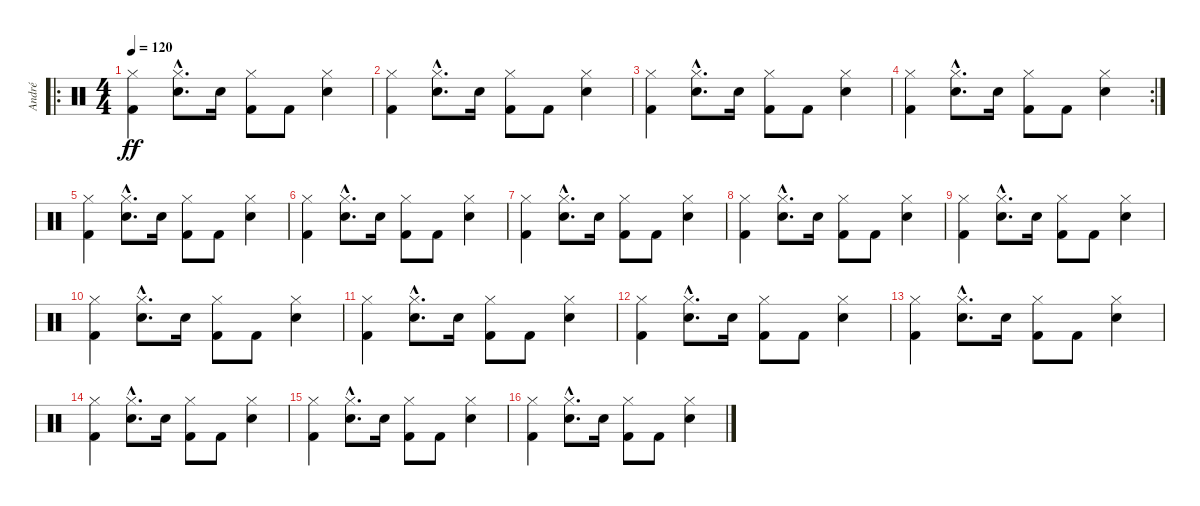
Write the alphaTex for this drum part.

\track ("André" "André") {instrument percussion}
\staff {score}
\articulation defaults
\ro
\ts (4 4)
\tempo 120
\clef neutral
\ks c
("Hi-Hat (closed)" "Kick (hit) 2").4{dy ff} ("Hi-Hat (closed)" "Electric Snare (hit)"{hac}).8{d} "Electric Snare (hit)".16 ("Hi-Hat (closed)" "Kick (hit) 2").8 "Kick (hit) 2".8 ("Hi-Hat (closed)" "Electric Snare (hit)").4 |
("Hi-Hat (closed)" "Kick (hit) 2").4 ("Hi-Hat (closed)" "Electric Snare (hit)"{hac}).8{d} "Electric Snare (hit)".16 ("Hi-Hat (closed)" "Kick (hit) 2").8 "Kick (hit) 2".8 ("Hi-Hat (closed)" "Electric Snare (hit)").4 |
("Hi-Hat (closed)" "Kick (hit) 2").4 ("Hi-Hat (closed)" "Electric Snare (hit)"{hac}).8{d} "Electric Snare (hit)".16 ("Hi-Hat (closed)" "Kick (hit) 2").8 "Kick (hit) 2".8 ("Hi-Hat (closed)" "Electric Snare (hit)").4 |
\rc 2
("Hi-Hat (closed)" "Kick (hit) 2").4 ("Hi-Hat (closed)" "Electric Snare (hit)"{hac}).8{d} "Electric Snare (hit)".16 ("Hi-Hat (closed)" "Kick (hit) 2").8 "Kick (hit) 2".8 ("Hi-Hat (closed)" "Electric Snare (hit)").4 |
("Hi-Hat (closed)" "Kick (hit) 2").4 ("Hi-Hat (closed)" "Electric Snare (hit)"{hac}).8{d} "Electric Snare (hit)".16 ("Hi-Hat (closed)" "Kick (hit) 2").8 "Kick (hit) 2".8 ("Hi-Hat (closed)" "Electric Snare (hit)").4 |
("Hi-Hat (closed)" "Kick (hit) 2").4 ("Hi-Hat (closed)" "Electric Snare (hit)"{hac}).8{d} "Electric Snare (hit)".16 ("Hi-Hat (closed)" "Kick (hit) 2").8 "Kick (hit) 2".8 ("Hi-Hat (closed)" "Electric Snare (hit)").4 |
("Hi-Hat (closed)" "Kick (hit) 2").4 ("Hi-Hat (closed)" "Electric Snare (hit)"{hac}).8{d} "Electric Snare (hit)".16 ("Hi-Hat (closed)" "Kick (hit) 2").8 "Kick (hit) 2".8 ("Hi-Hat (closed)" "Electric Snare (hit)").4 |
("Hi-Hat (closed)" "Kick (hit) 2").4 ("Hi-Hat (closed)" "Electric Snare (hit)"{hac}).8{d} "Electric Snare (hit)".16 ("Hi-Hat (closed)" "Kick (hit) 2").8 "Kick (hit) 2".8 ("Hi-Hat (closed)" "Electric Snare (hit)").4 |
("Hi-Hat (closed)" "Kick (hit) 2").4 ("Hi-Hat (closed)" "Electric Snare (hit)"{hac}).8{d} "Electric Snare (hit)".16 ("Hi-Hat (closed)" "Kick (hit) 2").8 "Kick (hit) 2".8 ("Hi-Hat (closed)" "Electric Snare (hit)").4 |
("Hi-Hat (closed)" "Kick (hit) 2").4 ("Hi-Hat (closed)" "Electric Snare (hit)"{hac}).8{d} "Electric Snare (hit)".16 ("Hi-Hat (closed)" "Kick (hit) 2").8 "Kick (hit) 2".8 ("Hi-Hat (closed)" "Electric Snare (hit)").4 |
("Hi-Hat (closed)" "Kick (hit) 2").4 ("Hi-Hat (closed)" "Electric Snare (hit)"{hac}).8{d} "Electric Snare (hit)".16 ("Hi-Hat (closed)" "Kick (hit) 2").8 "Kick (hit) 2".8 ("Hi-Hat (closed)" "Electric Snare (hit)").4 |
("Hi-Hat (closed)" "Kick (hit) 2").4 ("Hi-Hat (closed)" "Electric Snare (hit)"{hac}).8{d} "Electric Snare (hit)".16 ("Hi-Hat (closed)" "Kick (hit) 2").8 "Kick (hit) 2".8 ("Hi-Hat (closed)" "Electric Snare (hit)").4 |
("Hi-Hat (closed)" "Kick (hit) 2").4 ("Hi-Hat (closed)" "Electric Snare (hit)"{hac}).8{d} "Electric Snare (hit)".16 ("Hi-Hat (closed)" "Kick (hit) 2").8 "Kick (hit) 2".8 ("Hi-Hat (closed)" "Electric Snare (hit)").4 |
("Hi-Hat (closed)" "Kick (hit) 2").4 ("Hi-Hat (closed)" "Electric Snare (hit)"{hac}).8{d} "Electric Snare (hit)".16 ("Hi-Hat (closed)" "Kick (hit) 2").8 "Kick (hit) 2".8 ("Hi-Hat (closed)" "Electric Snare (hit)").4 |
("Hi-Hat (closed)" "Kick (hit) 2").4 ("Hi-Hat (closed)" "Electric Snare (hit)"{hac}).8{d} "Electric Snare (hit)".16 ("Hi-Hat (closed)" "Kick (hit) 2").8 "Kick (hit) 2".8 ("Hi-Hat (closed)" "Electric Snare (hit)").4 |
("Hi-Hat (closed)" "Kick (hit) 2").4 ("Hi-Hat (closed)" "Electric Snare (hit)"{hac}).8{d} "Electric Snare (hit)".16 ("Hi-Hat (closed)" "Kick (hit) 2").8 "Kick (hit) 2".8 ("Hi-Hat (closed)" "Electric Snare (hit)").4
